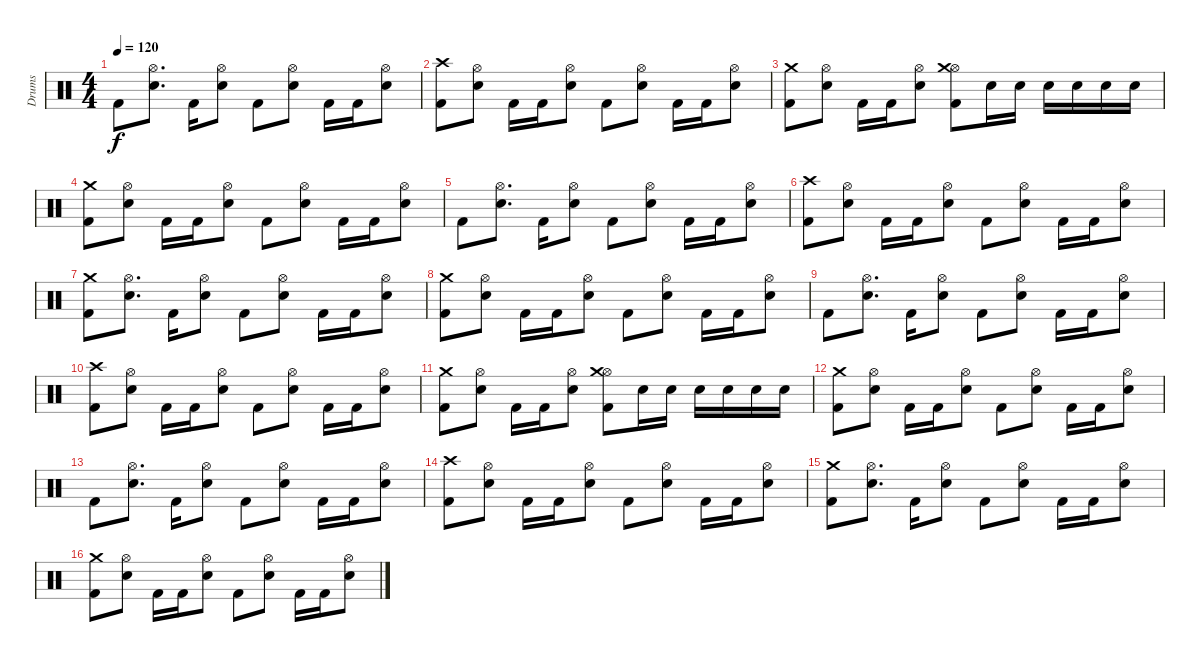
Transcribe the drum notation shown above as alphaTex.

\track ("Drums" "Drums") {instrument percussion}
\staff {score}
\articulation defaults
\ts (4 4)
\tempo 120
\clef neutral
\ks c "Kick (hit) 2".8{dy f}
("Hi-Hat (open)" "Snare (hit) 2").8{d} "Kick (hit) 2".16 ("Hi-Hat (open)" "Snare (hit) 2").8 "Kick (hit) 2".8 ("Hi-Hat (open)" "Snare (hit) 2").8 "Kick (hit) 2".16 "Kick (hit) 2".16 ("Hi-Hat (open)" "Snare (hit) 2").8 |
("Crash high (hit)" "Kick (hit) 2").8 ("Hi-Hat (open)" "Snare (hit) 2").8 "Kick (hit) 2".16 "Kick (hit) 2".16 ("Hi-Hat (open)" "Snare (hit) 2").8 "Kick (hit) 2".8 ("Hi-Hat (open)" "Snare (hit) 2").8 "Kick (hit) 2".16 "Kick (hit) 2".16 ("Hi-Hat (open)" "Snare (hit) 2").8 |
("Crash medium (hit)" "Kick (hit) 2").8 ("Hi-Hat (open)" "Snare (hit) 2").8 "Kick (hit) 2".16 "Kick (hit) 2".16 ("Hi-Hat (open)" "Snare (hit) 2").8 ("Hi-Hat (open)" "Crash medium (hit)" "Kick (hit) 2").8 "Electric Snare (hit)".16 "Electric Snare (hit)".16 "Electric Snare (hit)".16 "Electric Snare (hit)".16 "Electric Snare (hit)".16 "Electric Snare (hit)".16 |
("Crash medium (hit)" "Kick (hit) 2").8 ("Hi-Hat (open)" "Snare (hit) 2").8 "Kick (hit) 2".16 "Kick (hit) 2".16 ("Hi-Hat (open)" "Snare (hit) 2").8 "Kick (hit) 2".8 ("Hi-Hat (open)" "Snare (hit) 2").8 "Kick (hit) 2".16 "Kick (hit) 2".16 ("Hi-Hat (open)" "Snare (hit) 2").8 |
"Kick (hit) 2".8 ("Hi-Hat (open)" "Snare (hit) 2").8{d} "Kick (hit) 2".16 ("Hi-Hat (open)" "Snare (hit) 2").8 "Kick (hit) 2".8 ("Hi-Hat (open)" "Snare (hit) 2").8 "Kick (hit) 2".16 "Kick (hit) 2".16 ("Hi-Hat (open)" "Snare (hit) 2").8 |
("Crash high (hit)" "Kick (hit) 2").8 ("Hi-Hat (open)" "Snare (hit) 2").8 "Kick (hit) 2".16 "Kick (hit) 2".16 ("Hi-Hat (open)" "Snare (hit) 2").8 "Kick (hit) 2".8 ("Hi-Hat (open)" "Snare (hit) 2").8 "Kick (hit) 2".16 "Kick (hit) 2".16 ("Hi-Hat (open)" "Snare (hit) 2").8 |
("Crash medium (hit)" "Kick (hit) 2").8 ("Hi-Hat (open)" "Snare (hit) 2").8{d} "Kick (hit) 2".16 ("Hi-Hat (open)" "Snare (hit) 2").8 "Kick (hit) 2".8 ("Hi-Hat (open)" "Snare (hit) 2").8 "Kick (hit) 2".16 "Kick (hit) 2".16 ("Hi-Hat (open)" "Snare (hit) 2").8 |
("Crash medium (hit)" "Kick (hit) 2").8 ("Hi-Hat (open)" "Snare (hit) 2").8 "Kick (hit) 2".16 "Kick (hit) 2".16 ("Hi-Hat (open)" "Snare (hit) 2").8 "Kick (hit) 2".8 ("Hi-Hat (open)" "Snare (hit) 2").8 "Kick (hit) 2".16 "Kick (hit) 2".16 ("Hi-Hat (open)" "Snare (hit) 2").8 |
"Kick (hit) 2".8 ("Hi-Hat (open)" "Snare (hit) 2").8{d} "Kick (hit) 2".16 ("Hi-Hat (open)" "Snare (hit) 2").8 "Kick (hit) 2".8 ("Hi-Hat (open)" "Snare (hit) 2").8 "Kick (hit) 2".16 "Kick (hit) 2".16 ("Hi-Hat (open)" "Snare (hit) 2").8 |
("Crash high (hit)" "Kick (hit) 2").8 ("Hi-Hat (open)" "Snare (hit) 2").8 "Kick (hit) 2".16 "Kick (hit) 2".16 ("Hi-Hat (open)" "Snare (hit) 2").8 "Kick (hit) 2".8 ("Hi-Hat (open)" "Snare (hit) 2").8 "Kick (hit) 2".16 "Kick (hit) 2".16 ("Hi-Hat (open)" "Snare (hit) 2").8 |
("Crash medium (hit)" "Kick (hit) 2").8 ("Hi-Hat (open)" "Snare (hit) 2").8 "Kick (hit) 2".16 "Kick (hit) 2".16 ("Hi-Hat (open)" "Snare (hit) 2").8 ("Hi-Hat (open)" "Crash medium (hit)" "Kick (hit) 2").8 "Electric Snare (hit)".16 "Electric Snare (hit)".16 "Electric Snare (hit)".16 "Electric Snare (hit)".16 "Electric Snare (hit)".16 "Electric Snare (hit)".16 |
("Crash medium (hit)" "Kick (hit) 2").8 ("Hi-Hat (open)" "Snare (hit) 2").8 "Kick (hit) 2".16 "Kick (hit) 2".16 ("Hi-Hat (open)" "Snare (hit) 2").8 "Kick (hit) 2".8 ("Hi-Hat (open)" "Snare (hit) 2").8 "Kick (hit) 2".16 "Kick (hit) 2".16 ("Hi-Hat (open)" "Snare (hit) 2").8 |
"Kick (hit) 2".8 ("Hi-Hat (open)" "Snare (hit) 2").8{d} "Kick (hit) 2".16 ("Hi-Hat (open)" "Snare (hit) 2").8 "Kick (hit) 2".8 ("Hi-Hat (open)" "Snare (hit) 2").8 "Kick (hit) 2".16 "Kick (hit) 2".16 ("Hi-Hat (open)" "Snare (hit) 2").8 |
("Crash high (hit)" "Kick (hit) 2").8 ("Hi-Hat (open)" "Snare (hit) 2").8 "Kick (hit) 2".16 "Kick (hit) 2".16 ("Hi-Hat (open)" "Snare (hit) 2").8 "Kick (hit) 2".8 ("Hi-Hat (open)" "Snare (hit) 2").8 "Kick (hit) 2".16 "Kick (hit) 2".16 ("Hi-Hat (open)" "Snare (hit) 2").8 |
("Crash medium (hit)" "Kick (hit) 2").8 ("Hi-Hat (open)" "Snare (hit) 2").8{d} "Kick (hit) 2".16 ("Hi-Hat (open)" "Snare (hit) 2").8 "Kick (hit) 2".8 ("Hi-Hat (open)" "Snare (hit) 2").8 "Kick (hit) 2".16 "Kick (hit) 2".16 ("Hi-Hat (open)" "Snare (hit) 2").8 |
("Crash medium (hit)" "Kick (hit) 2").8 ("Hi-Hat (open)" "Snare (hit) 2").8 "Kick (hit) 2".16 "Kick (hit) 2".16 ("Hi-Hat (open)" "Snare (hit) 2").8 "Kick (hit) 2".8 ("Hi-Hat (open)" "Snare (hit) 2").8 "Kick (hit) 2".16 "Kick (hit) 2".16 ("Hi-Hat (open)" "Snare (hit) 2").8
